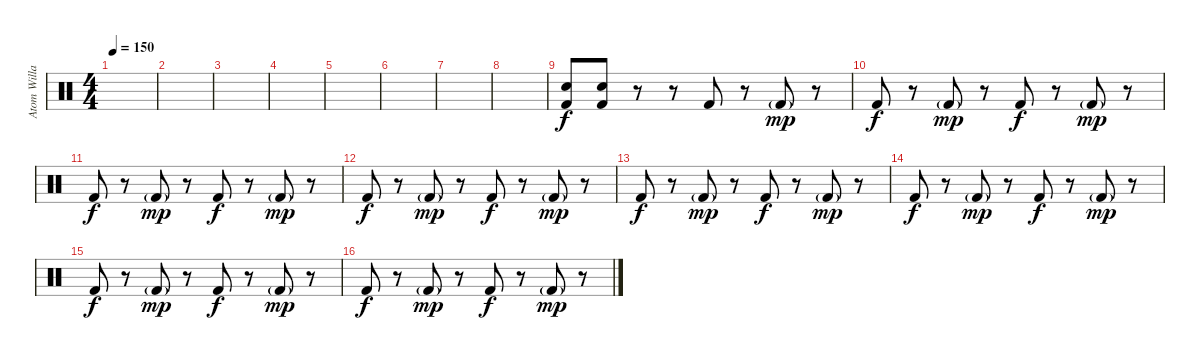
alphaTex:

\track ("Atom Willard - Drums" "Atom Willa") {instrument percussion}
\staff {score}
\articulation defaults
\ts (4 4)
\tempo 150
\clef neutral
\ks c
|
|
|
|
|
|
|
|
("Electric Snare (hit)" "Kick (hit) 2").8 ("Electric Snare (hit)" "Kick (hit) 2").8 r.8 r.8 "Kick (hit) 2".8 r.8 "Kick (hit) 2"{g}.8{dy mp} r.8 |
"Kick (hit) 2".8{dy f} r.8 "Kick (hit) 2"{g}.8{dy mp} r.8 "Kick (hit) 2".8{dy f} r.8 "Kick (hit) 2"{g}.8{dy mp} r.8 |
"Kick (hit) 2".8{dy f} r.8 "Kick (hit) 2"{g}.8{dy mp} r.8 "Kick (hit) 2".8{dy f} r.8 "Kick (hit) 2"{g}.8{dy mp} r.8 |
"Kick (hit) 2".8{dy f} r.8 "Kick (hit) 2"{g}.8{dy mp} r.8 "Kick (hit) 2".8{dy f} r.8 "Kick (hit) 2"{g}.8{dy mp} r.8 |
"Kick (hit) 2".8{dy f} r.8 "Kick (hit) 2"{g}.8{dy mp} r.8 "Kick (hit) 2".8{dy f} r.8 "Kick (hit) 2"{g}.8{dy mp} r.8 |
"Kick (hit) 2".8{dy f} r.8 "Kick (hit) 2"{g}.8{dy mp} r.8 "Kick (hit) 2".8{dy f} r.8 "Kick (hit) 2"{g}.8{dy mp} r.8 |
"Kick (hit) 2".8{dy f} r.8 "Kick (hit) 2"{g}.8{dy mp} r.8 "Kick (hit) 2".8{dy f} r.8 "Kick (hit) 2"{g}.8{dy mp} r.8 |
"Kick (hit) 2".8{dy f} r.8 "Kick (hit) 2"{g}.8{dy mp} r.8 "Kick (hit) 2".8{dy f} r.8 "Kick (hit) 2"{g}.8{dy mp} r.8
